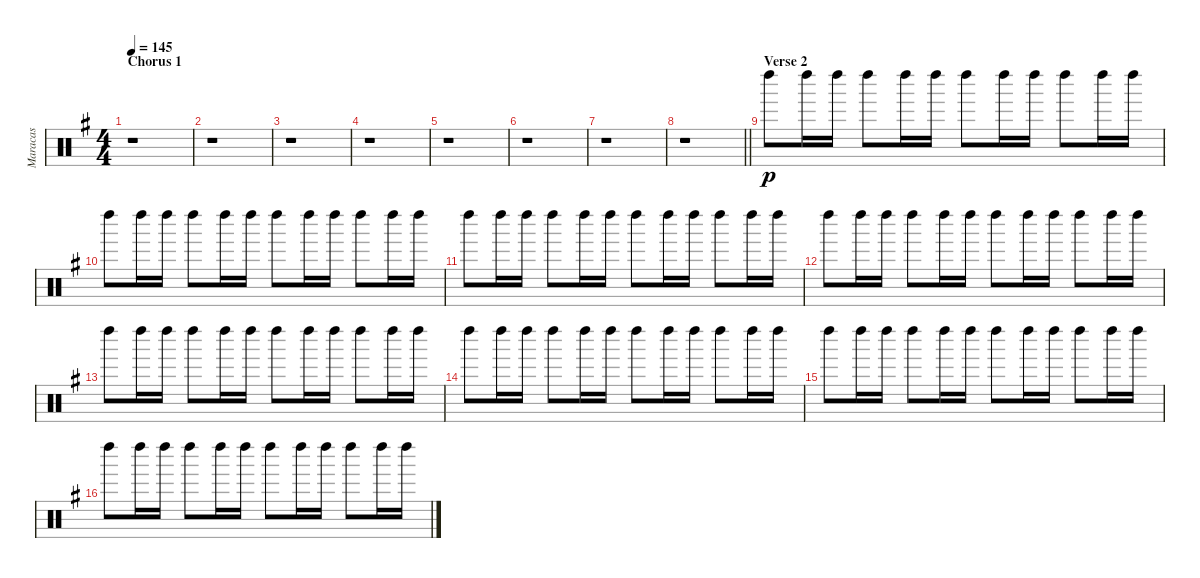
\track ("Maracas" "Maracas") {instrument percussion}
\staff {score}
\articulation defaults
\ts (4 4)
\section ("" "Chorus 1")
\tempo 145
\clef neutral
\ks g
r.1{dy p} |
r.1 |
r.1 |
r.1 |
r.1 |
r.1 |
r.1 |
\barLineRight lightlight
r.1 |
\section ("" "Verse 2")
"Left Maraca (hit)".8 "Left Maraca (hit)".16 "Left Maraca (hit)".16 "Left Maraca (hit)".8 "Left Maraca (hit)".16 "Left Maraca (hit)".16 "Left Maraca (hit)".8 "Left Maraca (hit)".16 "Left Maraca (hit)".16 "Left Maraca (hit)".8 "Left Maraca (hit)".16 "Left Maraca (hit)".16 |
"Left Maraca (hit)".8 "Left Maraca (hit)".16 "Left Maraca (hit)".16 "Left Maraca (hit)".8 "Left Maraca (hit)".16 "Left Maraca (hit)".16 "Left Maraca (hit)".8 "Left Maraca (hit)".16 "Left Maraca (hit)".16 "Left Maraca (hit)".8 "Left Maraca (hit)".16 "Left Maraca (hit)".16 |
"Left Maraca (hit)".8 "Left Maraca (hit)".16 "Left Maraca (hit)".16 "Left Maraca (hit)".8 "Left Maraca (hit)".16 "Left Maraca (hit)".16 "Left Maraca (hit)".8 "Left Maraca (hit)".16 "Left Maraca (hit)".16 "Left Maraca (hit)".8 "Left Maraca (hit)".16 "Left Maraca (hit)".16 |
"Left Maraca (hit)".8 "Left Maraca (hit)".16 "Left Maraca (hit)".16 "Left Maraca (hit)".8 "Left Maraca (hit)".16 "Left Maraca (hit)".16 "Left Maraca (hit)".8 "Left Maraca (hit)".16 "Left Maraca (hit)".16 "Left Maraca (hit)".8 "Left Maraca (hit)".16 "Left Maraca (hit)".16 |
"Left Maraca (hit)".8 "Left Maraca (hit)".16 "Left Maraca (hit)".16 "Left Maraca (hit)".8 "Left Maraca (hit)".16 "Left Maraca (hit)".16 "Left Maraca (hit)".8 "Left Maraca (hit)".16 "Left Maraca (hit)".16 "Left Maraca (hit)".8 "Left Maraca (hit)".16 "Left Maraca (hit)".16 |
"Left Maraca (hit)".8 "Left Maraca (hit)".16 "Left Maraca (hit)".16 "Left Maraca (hit)".8 "Left Maraca (hit)".16 "Left Maraca (hit)".16 "Left Maraca (hit)".8 "Left Maraca (hit)".16 "Left Maraca (hit)".16 "Left Maraca (hit)".8 "Left Maraca (hit)".16 "Left Maraca (hit)".16 |
"Left Maraca (hit)".8 "Left Maraca (hit)".16 "Left Maraca (hit)".16 "Left Maraca (hit)".8 "Left Maraca (hit)".16 "Left Maraca (hit)".16 "Left Maraca (hit)".8 "Left Maraca (hit)".16 "Left Maraca (hit)".16 "Left Maraca (hit)".8 "Left Maraca (hit)".16 "Left Maraca (hit)".16 |
"Left Maraca (hit)".8 "Left Maraca (hit)".16 "Left Maraca (hit)".16 "Left Maraca (hit)".8 "Left Maraca (hit)".16 "Left Maraca (hit)".16 "Left Maraca (hit)".8 "Left Maraca (hit)".16 "Left Maraca (hit)".16 "Left Maraca (hit)".8 "Left Maraca (hit)".16 "Left Maraca (hit)".16
